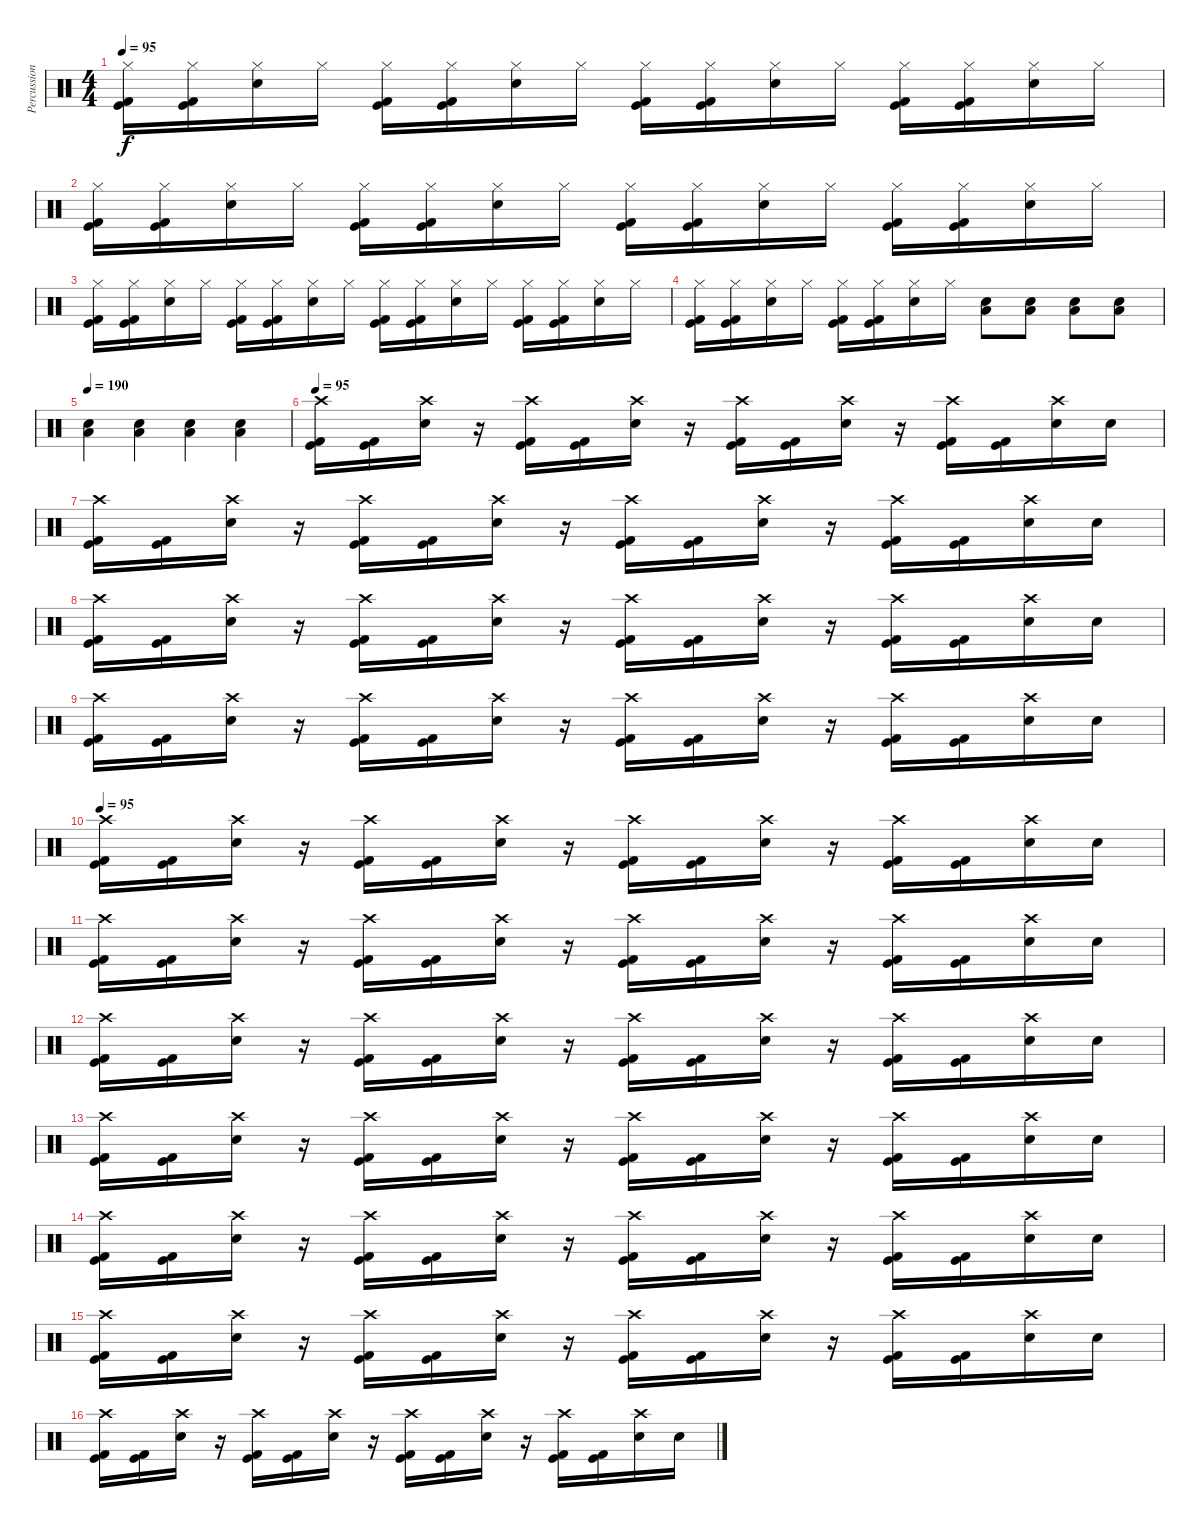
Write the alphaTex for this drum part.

\track ("Percussion" "Percussion") {instrument percussion}
\staff {score}
\articulation defaults
\ts (4 4)
\tempo 95
\clef neutral
\ks c
("Hi-Hat (closed)" "Kick (hit)" "Kick (hit) 2").16{dy f} ("Hi-Hat (closed)" "Kick (hit)" "Kick (hit) 2").16 ("Hi-Hat (closed)" "Electric Snare (hit)").16 "Hi-Hat (closed)".16 ("Hi-Hat (closed)" "Kick (hit)" "Kick (hit) 2").16 ("Hi-Hat (closed)" "Kick (hit)" "Kick (hit) 2").16 ("Hi-Hat (closed)" "Electric Snare (hit)").16 "Hi-Hat (closed)".16 ("Hi-Hat (closed)" "Kick (hit)" "Kick (hit) 2").16 ("Hi-Hat (closed)" "Kick (hit)" "Kick (hit) 2").16 ("Hi-Hat (closed)" "Electric Snare (hit)").16 "Hi-Hat (closed)".16 ("Hi-Hat (closed)" "Kick (hit)" "Kick (hit) 2").16 ("Hi-Hat (closed)" "Kick (hit)" "Kick (hit) 2").16 ("Hi-Hat (closed)" "Electric Snare (hit)").16 "Hi-Hat (closed)".16 |
("Hi-Hat (closed)" "Kick (hit)" "Kick (hit) 2").16 ("Hi-Hat (closed)" "Kick (hit)" "Kick (hit) 2").16 ("Hi-Hat (closed)" "Electric Snare (hit)").16 "Hi-Hat (closed)".16 ("Hi-Hat (closed)" "Kick (hit)" "Kick (hit) 2").16 ("Hi-Hat (closed)" "Kick (hit)" "Kick (hit) 2").16 ("Hi-Hat (closed)" "Electric Snare (hit)").16 "Hi-Hat (closed)".16 ("Hi-Hat (closed)" "Kick (hit)" "Kick (hit) 2").16 ("Hi-Hat (closed)" "Kick (hit)" "Kick (hit) 2").16 ("Hi-Hat (closed)" "Electric Snare (hit)").16 "Hi-Hat (closed)".16 ("Hi-Hat (closed)" "Kick (hit)" "Kick (hit) 2").16 ("Hi-Hat (closed)" "Kick (hit)" "Kick (hit) 2").16 ("Hi-Hat (closed)" "Electric Snare (hit)").16 "Hi-Hat (closed)".16 |
("Hi-Hat (closed)" "Kick (hit)" "Kick (hit) 2").16 ("Hi-Hat (closed)" "Kick (hit)" "Kick (hit) 2").16 ("Hi-Hat (closed)" "Electric Snare (hit)").16 "Hi-Hat (closed)".16 ("Hi-Hat (closed)" "Kick (hit)" "Kick (hit) 2").16 ("Hi-Hat (closed)" "Kick (hit)" "Kick (hit) 2").16 ("Hi-Hat (closed)" "Electric Snare (hit)").16 "Hi-Hat (closed)".16 ("Hi-Hat (closed)" "Kick (hit)" "Kick (hit) 2").16 ("Hi-Hat (closed)" "Kick (hit)" "Kick (hit) 2").16 ("Hi-Hat (closed)" "Electric Snare (hit)").16 "Hi-Hat (closed)".16 ("Hi-Hat (closed)" "Kick (hit)" "Kick (hit) 2").16 ("Hi-Hat (closed)" "Kick (hit)" "Kick (hit) 2").16 ("Hi-Hat (closed)" "Electric Snare (hit)").16 "Hi-Hat (closed)".16 |
("Hi-Hat (closed)" "Kick (hit)" "Kick (hit) 2").16 ("Hi-Hat (closed)" "Kick (hit)" "Kick (hit) 2").16 ("Hi-Hat (closed)" "Electric Snare (hit)").16 "Hi-Hat (closed)".16 ("Hi-Hat (closed)" "Kick (hit)" "Kick (hit) 2").16 ("Hi-Hat (closed)" "Kick (hit)" "Kick (hit) 2").16 ("Hi-Hat (closed)" "Electric Snare (hit)").16 "Hi-Hat (closed)".16 ("Low Tom (hit)" "Electric Snare (hit)").8 ("Low Tom (hit)" "Electric Snare (hit)").8 ("Low Tom (hit)" "Electric Snare (hit)").8 ("Low Tom (hit)" "Electric Snare (hit)").8 |
\tempo 190
("Low Tom (hit)" "Electric Snare (hit)").4 ("Low Tom (hit)" "Electric Snare (hit)").4 ("Low Tom (hit)" "Electric Snare (hit)").4 ("Low Tom (hit)" "Electric Snare (hit)").4 |
\tempo 95
("Crash high (hit)" "Kick (hit)" "Kick (hit) 2").16 ("Kick (hit)" "Kick (hit) 2").16 ("Crash high (hit)" "Electric Snare (hit)").16 r.16 ("Crash high (hit)" "Kick (hit)" "Kick (hit) 2").16 ("Kick (hit)" "Kick (hit) 2").16 ("Crash high (hit)" "Electric Snare (hit)").16 r.16 ("Crash high (hit)" "Kick (hit)" "Kick (hit) 2").16 ("Kick (hit)" "Kick (hit) 2").16 ("Crash high (hit)" "Electric Snare (hit)").16 r.16 ("Crash high (hit)" "Kick (hit)" "Kick (hit) 2").16 ("Kick (hit)" "Kick (hit) 2").16 ("Crash high (hit)" "Electric Snare (hit)").16 "Snare (hit)".16 |
("Crash high (hit)" "Kick (hit)" "Kick (hit) 2").16 ("Kick (hit)" "Kick (hit) 2").16 ("Crash high (hit)" "Electric Snare (hit)").16 r.16 ("Crash high (hit)" "Kick (hit)" "Kick (hit) 2").16 ("Kick (hit)" "Kick (hit) 2").16 ("Crash high (hit)" "Electric Snare (hit)").16 r.16 ("Crash high (hit)" "Kick (hit)" "Kick (hit) 2").16 ("Kick (hit)" "Kick (hit) 2").16 ("Crash high (hit)" "Electric Snare (hit)").16 r.16 ("Crash high (hit)" "Kick (hit)" "Kick (hit) 2").16 ("Kick (hit)" "Kick (hit) 2").16 ("Crash high (hit)" "Electric Snare (hit)").16 "Snare (hit)".16 |
("Crash high (hit)" "Kick (hit)" "Kick (hit) 2").16 ("Kick (hit)" "Kick (hit) 2").16 ("Crash high (hit)" "Electric Snare (hit)").16 r.16 ("Crash high (hit)" "Kick (hit)" "Kick (hit) 2").16 ("Kick (hit)" "Kick (hit) 2").16 ("Crash high (hit)" "Electric Snare (hit)").16 r.16 ("Crash high (hit)" "Kick (hit)" "Kick (hit) 2").16 ("Kick (hit)" "Kick (hit) 2").16 ("Crash high (hit)" "Electric Snare (hit)").16 r.16 ("Crash high (hit)" "Kick (hit)" "Kick (hit) 2").16 ("Kick (hit)" "Kick (hit) 2").16 ("Crash high (hit)" "Electric Snare (hit)").16 "Snare (hit)".16 |
("Crash high (hit)" "Kick (hit)" "Kick (hit) 2").16 ("Kick (hit)" "Kick (hit) 2").16 ("Crash high (hit)" "Electric Snare (hit)").16 r.16 ("Crash high (hit)" "Kick (hit)" "Kick (hit) 2").16 ("Kick (hit)" "Kick (hit) 2").16 ("Crash high (hit)" "Electric Snare (hit)").16 r.16 ("Crash high (hit)" "Kick (hit)" "Kick (hit) 2").16 ("Kick (hit)" "Kick (hit) 2").16 ("Crash high (hit)" "Electric Snare (hit)").16 r.16 ("Crash high (hit)" "Kick (hit)" "Kick (hit) 2").16 ("Kick (hit)" "Kick (hit) 2").16 ("Crash high (hit)" "Electric Snare (hit)").16 "Snare (hit)".16 |
\tempo 95
("Crash high (hit)" "Kick (hit)" "Kick (hit) 2").16 ("Kick (hit)" "Kick (hit) 2").16 ("Crash high (hit)" "Electric Snare (hit)").16 r.16 ("Crash high (hit)" "Kick (hit)" "Kick (hit) 2").16 ("Kick (hit)" "Kick (hit) 2").16 ("Crash high (hit)" "Electric Snare (hit)").16 r.16 ("Crash high (hit)" "Kick (hit)" "Kick (hit) 2").16 ("Kick (hit)" "Kick (hit) 2").16 ("Crash high (hit)" "Electric Snare (hit)").16 r.16 ("Crash high (hit)" "Kick (hit)" "Kick (hit) 2").16 ("Kick (hit)" "Kick (hit) 2").16 ("Crash high (hit)" "Electric Snare (hit)").16 "Snare (hit)".16 |
("Crash high (hit)" "Kick (hit)" "Kick (hit) 2").16 ("Kick (hit)" "Kick (hit) 2").16 ("Crash high (hit)" "Electric Snare (hit)").16 r.16 ("Crash high (hit)" "Kick (hit)" "Kick (hit) 2").16 ("Kick (hit)" "Kick (hit) 2").16 ("Crash high (hit)" "Electric Snare (hit)").16 r.16 ("Crash high (hit)" "Kick (hit)" "Kick (hit) 2").16 ("Kick (hit)" "Kick (hit) 2").16 ("Crash high (hit)" "Electric Snare (hit)").16 r.16 ("Crash high (hit)" "Kick (hit)" "Kick (hit) 2").16 ("Kick (hit)" "Kick (hit) 2").16 ("Crash high (hit)" "Electric Snare (hit)").16 "Snare (hit)".16 |
("Crash high (hit)" "Kick (hit)" "Kick (hit) 2").16 ("Kick (hit)" "Kick (hit) 2").16 ("Crash high (hit)" "Electric Snare (hit)").16 r.16 ("Crash high (hit)" "Kick (hit)" "Kick (hit) 2").16 ("Kick (hit)" "Kick (hit) 2").16 ("Crash high (hit)" "Electric Snare (hit)").16 r.16 ("Crash high (hit)" "Kick (hit)" "Kick (hit) 2").16 ("Kick (hit)" "Kick (hit) 2").16 ("Crash high (hit)" "Electric Snare (hit)").16 r.16 ("Crash high (hit)" "Kick (hit)" "Kick (hit) 2").16 ("Kick (hit)" "Kick (hit) 2").16 ("Crash high (hit)" "Electric Snare (hit)").16 "Snare (hit)".16 |
("Crash high (hit)" "Kick (hit)" "Kick (hit) 2").16 ("Kick (hit)" "Kick (hit) 2").16 ("Crash high (hit)" "Electric Snare (hit)").16 r.16 ("Crash high (hit)" "Kick (hit)" "Kick (hit) 2").16 ("Kick (hit)" "Kick (hit) 2").16 ("Crash high (hit)" "Electric Snare (hit)").16 r.16 ("Crash high (hit)" "Kick (hit)" "Kick (hit) 2").16 ("Kick (hit)" "Kick (hit) 2").16 ("Crash high (hit)" "Electric Snare (hit)").16 r.16 ("Crash high (hit)" "Kick (hit)" "Kick (hit) 2").16 ("Kick (hit)" "Kick (hit) 2").16 ("Crash high (hit)" "Electric Snare (hit)").16 "Snare (hit)".16 |
("Crash high (hit)" "Kick (hit)" "Kick (hit) 2").16 ("Kick (hit)" "Kick (hit) 2").16 ("Crash high (hit)" "Electric Snare (hit)").16 r.16 ("Crash high (hit)" "Kick (hit)" "Kick (hit) 2").16 ("Kick (hit)" "Kick (hit) 2").16 ("Crash high (hit)" "Electric Snare (hit)").16 r.16 ("Crash high (hit)" "Kick (hit)" "Kick (hit) 2").16 ("Kick (hit)" "Kick (hit) 2").16 ("Crash high (hit)" "Electric Snare (hit)").16 r.16 ("Crash high (hit)" "Kick (hit)" "Kick (hit) 2").16 ("Kick (hit)" "Kick (hit) 2").16 ("Crash high (hit)" "Electric Snare (hit)").16 "Snare (hit)".16 |
("Crash high (hit)" "Kick (hit)" "Kick (hit) 2").16 ("Kick (hit)" "Kick (hit) 2").16 ("Crash high (hit)" "Electric Snare (hit)").16 r.16 ("Crash high (hit)" "Kick (hit)" "Kick (hit) 2").16 ("Kick (hit)" "Kick (hit) 2").16 ("Crash high (hit)" "Electric Snare (hit)").16 r.16 ("Crash high (hit)" "Kick (hit)" "Kick (hit) 2").16 ("Kick (hit)" "Kick (hit) 2").16 ("Crash high (hit)" "Electric Snare (hit)").16 r.16 ("Crash high (hit)" "Kick (hit)" "Kick (hit) 2").16 ("Kick (hit)" "Kick (hit) 2").16 ("Crash high (hit)" "Electric Snare (hit)").16 "Snare (hit)".16 |
("Crash high (hit)" "Kick (hit)" "Kick (hit) 2").16 ("Kick (hit)" "Kick (hit) 2").16 ("Crash high (hit)" "Electric Snare (hit)").16 r.16 ("Crash high (hit)" "Kick (hit)" "Kick (hit) 2").16 ("Kick (hit)" "Kick (hit) 2").16 ("Crash high (hit)" "Electric Snare (hit)").16 r.16 ("Crash high (hit)" "Kick (hit)" "Kick (hit) 2").16 ("Kick (hit)" "Kick (hit) 2").16 ("Crash high (hit)" "Electric Snare (hit)").16 r.16 ("Crash high (hit)" "Kick (hit)" "Kick (hit) 2").16 ("Kick (hit)" "Kick (hit) 2").16 ("Crash high (hit)" "Electric Snare (hit)").16 "Snare (hit)".16
